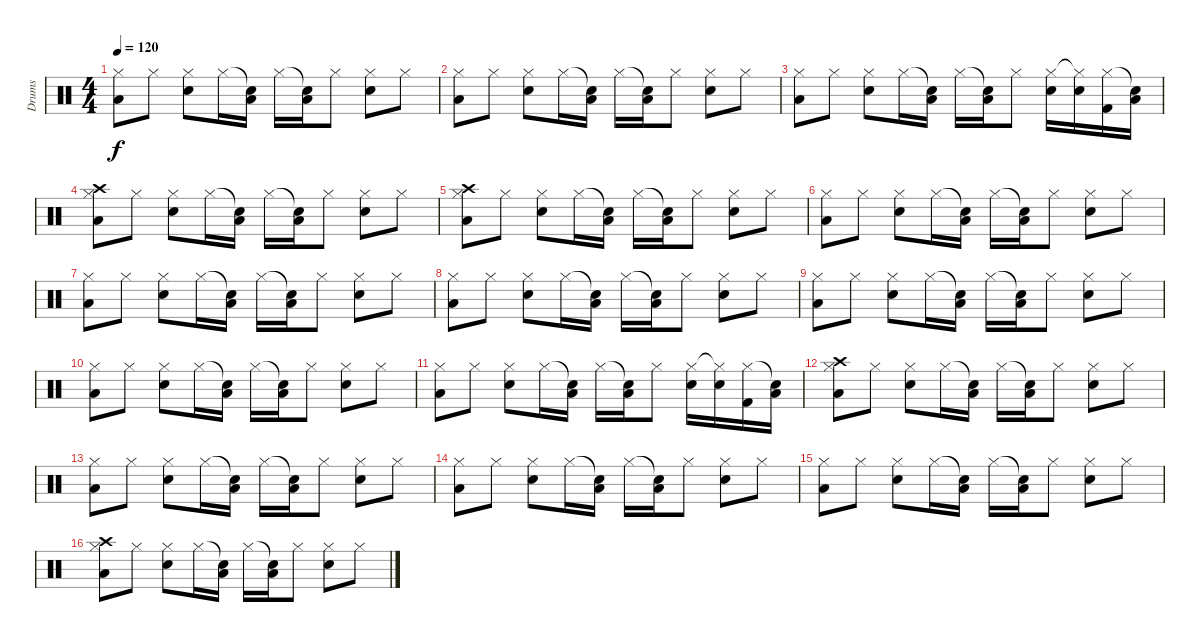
\track ("Drums" "Drums") {instrument percussion}
\staff {score}
\articulation defaults
\ts (4 4)
\tempo 120
\clef neutral
\ks c
("Hi-Hat (closed)" "Low Tom (hit)").8{dy f} "Hi-Hat (closed)".8 ("Hi-Hat (closed)" "Snare (hit) 2").8 "Hi-Hat (closed)".16 ("Snare (hit)"{t} "Low Tom (hit)").16 "Hi-Hat (closed)".16 ("Snare (hit)"{t} "Low Tom (hit)").16 "Hi-Hat (closed)".8 ("Hi-Hat (closed)" "Snare (hit) 2").8 "Hi-Hat (closed)".8 |
("Hi-Hat (closed)" "Low Tom (hit)").8 "Hi-Hat (closed)".8 ("Hi-Hat (closed)" "Snare (hit) 2").8 "Hi-Hat (closed)".16 ("Snare (hit)"{t} "Low Tom (hit)").16 "Hi-Hat (closed)".16 ("Snare (hit)"{t} "Low Tom (hit)").16 "Hi-Hat (closed)".8 ("Hi-Hat (closed)" "Snare (hit) 2").8 "Hi-Hat (closed)".8 |
("Hi-Hat (closed)" "Low Tom (hit)").8 "Hi-Hat (closed)".8 ("Hi-Hat (closed)" "Snare (hit) 2").8 "Hi-Hat (closed)".16 ("Snare (hit)"{t} "Low Tom (hit)").16 "Hi-Hat (closed)".16 ("Snare (hit)"{t} "Low Tom (hit)").16 "Hi-Hat (closed)".8 ("Hi-Hat (closed)" "Snare (hit) 2").16 ("Hi-Hat (closed)"{t} "Snare (hit) 2").16 ("Hi-Hat (closed)" "Kick (hit) 2").16 ("Snare (hit)"{t} "Low Tom (hit)").16 |
("Hi-Hat (closed)" "Low Tom (hit)" "Crash high (hit)").8 "Hi-Hat (closed)".8 ("Hi-Hat (closed)" "Snare (hit) 2").8 "Hi-Hat (closed)".16 ("Snare (hit)"{t} "Low Tom (hit)").16 "Hi-Hat (closed)".16 ("Snare (hit)"{t} "Low Tom (hit)").16 "Hi-Hat (closed)".8 ("Hi-Hat (closed)" "Snare (hit) 2").8 "Hi-Hat (closed)".8 |
("Hi-Hat (closed)" "Low Tom (hit)" "Crash high (hit)").8 "Hi-Hat (closed)".8 ("Hi-Hat (closed)" "Snare (hit) 2").8 "Hi-Hat (closed)".16 ("Snare (hit)"{t} "Low Tom (hit)").16 "Hi-Hat (closed)".16 ("Snare (hit)"{t} "Low Tom (hit)").16 "Hi-Hat (closed)".8 ("Hi-Hat (closed)" "Snare (hit) 2").8 "Hi-Hat (closed)".8 |
("Hi-Hat (closed)" "Low Tom (hit)").8 "Hi-Hat (closed)".8 ("Hi-Hat (closed)" "Snare (hit) 2").8 "Hi-Hat (closed)".16 ("Snare (hit)"{t} "Low Tom (hit)").16 "Hi-Hat (closed)".16 ("Snare (hit)"{t} "Low Tom (hit)").16 "Hi-Hat (closed)".8 ("Hi-Hat (closed)" "Snare (hit) 2").8 "Hi-Hat (closed)".8 |
("Hi-Hat (closed)" "Low Tom (hit)").8 "Hi-Hat (closed)".8 ("Hi-Hat (closed)" "Snare (hit) 2").8 "Hi-Hat (closed)".16 ("Snare (hit)"{t} "Low Tom (hit)").16 "Hi-Hat (closed)".16 ("Snare (hit)"{t} "Low Tom (hit)").16 "Hi-Hat (closed)".8 ("Hi-Hat (closed)" "Snare (hit) 2").8 "Hi-Hat (closed)".8 |
("Hi-Hat (closed)" "Low Tom (hit)").8 "Hi-Hat (closed)".8 ("Hi-Hat (closed)" "Snare (hit) 2").8 "Hi-Hat (closed)".16 ("Snare (hit)"{t} "Low Tom (hit)").16 "Hi-Hat (closed)".16 ("Snare (hit)"{t} "Low Tom (hit)").16 "Hi-Hat (closed)".8 ("Hi-Hat (closed)" "Snare (hit) 2").8 "Hi-Hat (closed)".8 |
("Hi-Hat (closed)" "Low Tom (hit)").8 "Hi-Hat (closed)".8 ("Hi-Hat (closed)" "Snare (hit) 2").8 "Hi-Hat (closed)".16 ("Snare (hit)"{t} "Low Tom (hit)").16 "Hi-Hat (closed)".16 ("Snare (hit)"{t} "Low Tom (hit)").16 "Hi-Hat (closed)".8 ("Hi-Hat (closed)" "Snare (hit) 2").8 "Hi-Hat (closed)".8 |
("Hi-Hat (closed)" "Low Tom (hit)").8 "Hi-Hat (closed)".8 ("Hi-Hat (closed)" "Snare (hit) 2").8 "Hi-Hat (closed)".16 ("Snare (hit)"{t} "Low Tom (hit)").16 "Hi-Hat (closed)".16 ("Snare (hit)"{t} "Low Tom (hit)").16 "Hi-Hat (closed)".8 ("Hi-Hat (closed)" "Snare (hit) 2").8 "Hi-Hat (closed)".8 |
("Hi-Hat (closed)" "Low Tom (hit)").8 "Hi-Hat (closed)".8 ("Hi-Hat (closed)" "Snare (hit) 2").8 "Hi-Hat (closed)".16 ("Snare (hit)"{t} "Low Tom (hit)").16 "Hi-Hat (closed)".16 ("Snare (hit)"{t} "Low Tom (hit)").16 "Hi-Hat (closed)".8 ("Hi-Hat (closed)" "Snare (hit) 2").16 ("Hi-Hat (closed)"{t} "Snare (hit) 2").16 ("Hi-Hat (closed)" "Kick (hit) 2").16 ("Snare (hit)"{t} "Low Tom (hit)").16 |
("Hi-Hat (closed)" "Low Tom (hit)" "Crash high (hit)").8 "Hi-Hat (closed)".8 ("Hi-Hat (closed)" "Snare (hit) 2").8 "Hi-Hat (closed)".16 ("Snare (hit)"{t} "Low Tom (hit)").16 "Hi-Hat (closed)".16 ("Snare (hit)"{t} "Low Tom (hit)").16 "Hi-Hat (closed)".8 ("Hi-Hat (closed)" "Snare (hit) 2").8 "Hi-Hat (closed)".8 |
("Hi-Hat (closed)" "Low Tom (hit)").8 "Hi-Hat (closed)".8 ("Hi-Hat (closed)" "Snare (hit) 2").8 "Hi-Hat (closed)".16 ("Snare (hit)"{t} "Low Tom (hit)").16 "Hi-Hat (closed)".16 ("Snare (hit)"{t} "Low Tom (hit)").16 "Hi-Hat (closed)".8 ("Hi-Hat (closed)" "Snare (hit) 2").8 "Hi-Hat (closed)".8 |
("Hi-Hat (closed)" "Low Tom (hit)").8 "Hi-Hat (closed)".8 ("Hi-Hat (closed)" "Snare (hit) 2").8 "Hi-Hat (closed)".16 ("Snare (hit)"{t} "Low Tom (hit)").16 "Hi-Hat (closed)".16 ("Snare (hit)"{t} "Low Tom (hit)").16 "Hi-Hat (closed)".8 ("Hi-Hat (closed)" "Snare (hit) 2").8 "Hi-Hat (closed)".8 |
("Hi-Hat (closed)" "Low Tom (hit)").8 "Hi-Hat (closed)".8 ("Hi-Hat (closed)" "Snare (hit) 2").8 "Hi-Hat (closed)".16 ("Snare (hit)"{t} "Low Tom (hit)").16 "Hi-Hat (closed)".16 ("Snare (hit)"{t} "Low Tom (hit)").16 "Hi-Hat (closed)".8 ("Hi-Hat (closed)" "Snare (hit) 2").8 "Hi-Hat (closed)".8 |
("Hi-Hat (closed)" "Low Tom (hit)" "Crash high (hit)").8 "Hi-Hat (closed)".8 ("Hi-Hat (closed)" "Snare (hit) 2").8 "Hi-Hat (closed)".16 ("Snare (hit)"{t} "Low Tom (hit)").16 "Hi-Hat (closed)".16 ("Snare (hit)"{t} "Low Tom (hit)").16 "Hi-Hat (closed)".8 ("Hi-Hat (closed)" "Snare (hit) 2").8 "Hi-Hat (closed)".8
